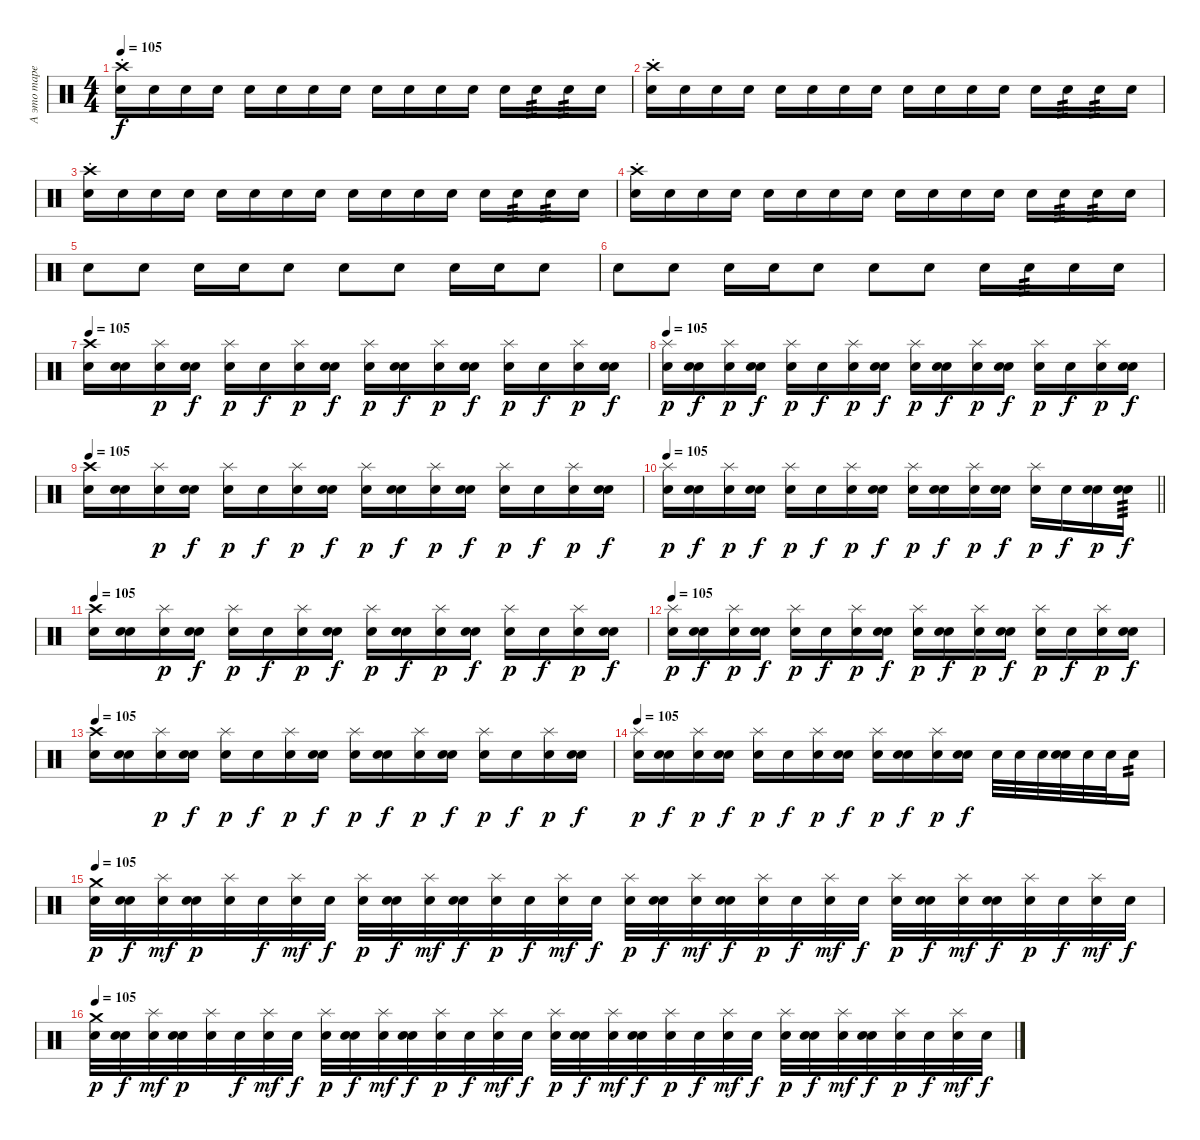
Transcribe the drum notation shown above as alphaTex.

\track ("А это тарелки уже" "А это таре") {instrument percussion}
\staff {score}
\articulation defaults
\ts (4 4)
\tempo 105
\clef neutral
\ks c
("Crash high (hit)"{st} "Snare (hit)").16{dy f} "Snare (hit)".16 "Snare (hit)".16 "Snare (hit)".16 "Snare (hit)".16 "Snare (hit)".16 "Snare (hit)".16 "Snare (hit)".16 "Snare (hit)".16 "Snare (hit)".16 "Snare (hit)".16 "Snare (hit)".16 "Snare (hit)".16 "Snare (hit)".16{tp 3} "Snare (hit)".16{tp 3} "Snare (hit)".16 |
("Crash high (hit)"{st} "Snare (hit)").16 "Snare (hit)".16 "Snare (hit)".16 "Snare (hit)".16 "Snare (hit)".16 "Snare (hit)".16 "Snare (hit)".16 "Snare (hit)".16 "Snare (hit)".16 "Snare (hit)".16 "Snare (hit)".16 "Snare (hit)".16 "Snare (hit)".16 "Snare (hit)".16{tp 3} "Snare (hit)".16{tp 3} "Snare (hit)".16 |
("Crash high (hit)"{st} "Snare (hit)").16 "Snare (hit)".16 "Snare (hit)".16 "Snare (hit)".16 "Snare (hit)".16 "Snare (hit)".16 "Snare (hit)".16 "Snare (hit)".16 "Snare (hit)".16 "Snare (hit)".16 "Snare (hit)".16 "Snare (hit)".16 "Snare (hit)".16 "Snare (hit)".16{tp 3} "Snare (hit)".16{tp 3} "Snare (hit)".16 |
("Crash high (hit)"{st} "Snare (hit)").16 "Snare (hit)".16 "Snare (hit)".16 "Snare (hit)".16 "Snare (hit)".16 "Snare (hit)".16 "Snare (hit)".16 "Snare (hit)".16 "Snare (hit)".16 "Snare (hit)".16 "Snare (hit)".16 "Snare (hit)".16 "Snare (hit)".16 "Snare (hit)".16{tp 3} "Snare (hit)".16{tp 3} "Snare (hit)".16 |
"Snare (hit)".8 "Snare (hit)".8 "Snare (hit)".16 "Snare (hit)".16 "Snare (hit)".8 "Snare (hit)".8 "Snare (hit)".8 "Snare (hit)".16 "Snare (hit)".16 "Snare (hit)".8 |
"Snare (hit)".8 "Snare (hit)".8 "Snare (hit)".16 "Snare (hit)".16 "Snare (hit)".8 "Snare (hit)".8 "Snare (hit)".8 "Snare (hit)".16 "Snare (hit)".16{tp 3} "Snare (hit)".16 "Snare (hit)".16 |
\tempo 105
("Crash high (hit)" "Snare (hit)").16 ("Snare (hit)" "Snare (hit)").16 ("Splash (hit)" "Snare (hit)").16{dy p} ("Snare (hit)" "Snare (hit)").16{dy f} ("Splash (hit)" "Snare (hit)").16{dy p} "Snare (hit)".16{dy f} ("Splash (hit)" "Snare (hit)").16{dy p} ("Snare (hit)" "Snare (hit)").16{dy f} ("Splash (hit)" "Snare (hit)").16{dy p} ("Snare (hit)" "Snare (hit)").16{dy f} ("Splash (hit)" "Snare (hit)").16{dy p} ("Snare (hit)" "Snare (hit)").16{dy f} ("Splash (hit)" "Snare (hit)").16{dy p} "Snare (hit)".16{dy f} ("Splash (hit)" "Snare (hit)").16{dy p} ("Snare (hit)" "Snare (hit)").16{dy f} |
\tempo 105
("Splash (hit)" "Snare (hit)").16{dy p} ("Snare (hit)" "Snare (hit)").16{dy f} ("Splash (hit)" "Snare (hit)").16{dy p} ("Snare (hit)" "Snare (hit)").16{dy f} ("Splash (hit)" "Snare (hit)").16{dy p} "Snare (hit)".16{dy f} ("Splash (hit)" "Snare (hit)").16{dy p} ("Snare (hit)" "Snare (hit)").16{dy f} ("Splash (hit)" "Snare (hit)").16{dy p} ("Snare (hit)" "Snare (hit)").16{dy f} ("Splash (hit)" "Snare (hit)").16{dy p} ("Snare (hit)" "Snare (hit)").16{dy f} ("Splash (hit)" "Snare (hit)").16{dy p} "Snare (hit)".16{dy f} ("Splash (hit)" "Snare (hit)").16{dy p} ("Snare (hit)" "Snare (hit)").16{dy f} |
\tempo 105
("Crash high (hit)" "Snare (hit)").16 ("Snare (hit)" "Snare (hit)").16 ("Splash (hit)" "Snare (hit)").16{dy p} ("Snare (hit)" "Snare (hit)").16{dy f} ("Splash (hit)" "Snare (hit)").16{dy p} "Snare (hit)".16{dy f} ("Splash (hit)" "Snare (hit)").16{dy p} ("Snare (hit)" "Snare (hit)").16{dy f} ("Splash (hit)" "Snare (hit)").16{dy p} ("Snare (hit)" "Snare (hit)").16{dy f} ("Splash (hit)" "Snare (hit)").16{dy p} ("Snare (hit)" "Snare (hit)").16{dy f} ("Splash (hit)" "Snare (hit)").16{dy p} "Snare (hit)".16{dy f} ("Splash (hit)" "Snare (hit)").16{dy p} ("Snare (hit)" "Snare (hit)").16{dy f} |
\tempo 105
\barLineRight lightlight
("Splash (hit)" "Snare (hit)").16{dy p} ("Snare (hit)" "Snare (hit)").16{dy f} ("Splash (hit)" "Snare (hit)").16{dy p} ("Snare (hit)" "Snare (hit)").16{dy f} ("Splash (hit)" "Snare (hit)").16{dy p} "Snare (hit)".16{dy f} ("Splash (hit)" "Snare (hit)").16{dy p} ("Snare (hit)" "Snare (hit)").16{dy f} ("Splash (hit)" "Snare (hit)").16{dy p} ("Snare (hit)" "Snare (hit)").16{dy f} ("Splash (hit)" "Snare (hit)").16{dy p} ("Snare (hit)" "Snare (hit)").16{dy f} ("Splash (hit)" "Snare (hit)").16{dy p} "Snare (hit)".16{dy f} ("Snare (hit)" "Snare (hit)").16{dy p} ("Snare (hit)" "Snare (hit)").16{tp 3 dy f} |
\tempo 105
("Crash high (hit)" "Snare (hit)").16 ("Snare (hit)" "Snare (hit)").16 ("Splash (hit)" "Snare (hit)").16{dy p} ("Snare (hit)" "Snare (hit)").16{dy f} ("Splash (hit)" "Snare (hit)").16{dy p} "Snare (hit)".16{dy f} ("Splash (hit)" "Snare (hit)").16{dy p} ("Snare (hit)" "Snare (hit)").16{dy f} ("Splash (hit)" "Snare (hit)").16{dy p} ("Snare (hit)" "Snare (hit)").16{dy f} ("Splash (hit)" "Snare (hit)").16{dy p} ("Snare (hit)" "Snare (hit)").16{dy f} ("Splash (hit)" "Snare (hit)").16{dy p} "Snare (hit)".16{dy f} ("Splash (hit)" "Snare (hit)").16{dy p} ("Snare (hit)" "Snare (hit)").16{dy f} |
\tempo 105
("Splash (hit)" "Snare (hit)").16{dy p} ("Snare (hit)" "Snare (hit)").16{dy f} ("Splash (hit)" "Snare (hit)").16{dy p} ("Snare (hit)" "Snare (hit)").16{dy f} ("Splash (hit)" "Snare (hit)").16{dy p} "Snare (hit)".16{dy f} ("Splash (hit)" "Snare (hit)").16{dy p} ("Snare (hit)" "Snare (hit)").16{dy f} ("Splash (hit)" "Snare (hit)").16{dy p} ("Snare (hit)" "Snare (hit)").16{dy f} ("Splash (hit)" "Snare (hit)").16{dy p} ("Snare (hit)" "Snare (hit)").16{dy f} ("Splash (hit)" "Snare (hit)").16{dy p} "Snare (hit)".16{dy f} ("Splash (hit)" "Snare (hit)").16{dy p} ("Snare (hit)" "Snare (hit)").16{dy f} |
\tempo 105
("Crash high (hit)" "Snare (hit)").16 ("Snare (hit)" "Snare (hit)").16 ("Splash (hit)" "Snare (hit)").16{dy p} ("Snare (hit)" "Snare (hit)").16{dy f} ("Splash (hit)" "Snare (hit)").16{dy p} "Snare (hit)".16{dy f} ("Splash (hit)" "Snare (hit)").16{dy p} ("Snare (hit)" "Snare (hit)").16{dy f} ("Splash (hit)" "Snare (hit)").16{dy p} ("Snare (hit)" "Snare (hit)").16{dy f} ("Splash (hit)" "Snare (hit)").16{dy p} ("Snare (hit)" "Snare (hit)").16{dy f} ("Splash (hit)" "Snare (hit)").16{dy p} "Snare (hit)".16{dy f} ("Splash (hit)" "Snare (hit)").16{dy p} ("Snare (hit)" "Snare (hit)").16{dy f} |
\tempo 105
("Splash (hit)" "Snare (hit)").16{dy p} ("Snare (hit)" "Snare (hit)").16{dy f} ("Splash (hit)" "Snare (hit)").16{dy p} ("Snare (hit)" "Snare (hit)").16{dy f} ("Splash (hit)" "Snare (hit)").16{dy p} "Snare (hit)".16{dy f} ("Splash (hit)" "Snare (hit)").16{dy p} ("Snare (hit)" "Snare (hit)").16{dy f} ("Splash (hit)" "Snare (hit)").16{dy p} ("Snare (hit)" "Snare (hit)").16{dy f} ("Splash (hit)" "Snare (hit)").16{dy p} ("Snare (hit)" "Snare (hit)").16{dy f} "Snare (hit)".32 "Snare (hit)".32 "Snare (hit)".32 ("Snare (hit)" "Snare (hit)").32 "Snare (hit)".32 "Snare (hit)".32 "Snare (hit)".16{tp 2} |
\tempo 105
("Crash medium (hit)" "Snare (hit)").32{dy p} ("Snare (hit)" "Snare (hit)").32{dy f} ("Splash (hit)" "Snare (hit)").32{dy mf} ("Snare (hit)" "Snare (hit)").32{dy p} ("Splash (hit)" "Snare (hit)").32 "Snare (hit)".32{dy f} ("Splash (hit)" "Snare (hit)").32{dy mf} "Snare (hit)".32{dy f} ("Splash (hit)" "Snare (hit)").32{dy p} ("Snare (hit)" "Snare (hit)").32{dy f} ("Splash (hit)" "Snare (hit)").32{dy mf} ("Snare (hit)" "Snare (hit)").32{dy f} ("Splash (hit)" "Snare (hit)").32{dy p} "Snare (hit)".32{dy f} ("Splash (hit)" "Snare (hit)").32{dy mf} "Snare (hit)".32{dy f} ("Splash (hit)" "Snare (hit)").32{dy p} ("Snare (hit)" "Snare (hit)").32{dy f} ("Splash (hit)" "Snare (hit)").32{dy mf} ("Snare (hit)" "Snare (hit)").32{dy f} ("Splash (hit)" "Snare (hit)").32{dy p} "Snare (hit)".32{dy f} ("Splash (hit)" "Snare (hit)").32{dy mf} "Snare (hit)".32{dy f} ("Splash (hit)" "Snare (hit)").32{dy p} ("Snare (hit)" "Snare (hit)").32{dy f} ("Splash (hit)" "Snare (hit)").32{dy mf} ("Snare (hit)" "Snare (hit)").32{dy f} ("Splash (hit)" "Snare (hit)").32{dy p} "Snare (hit)".32{dy f} ("Splash (hit)" "Snare (hit)").32{dy mf} "Snare (hit)".32{dy f} |
\tempo 105
("Crash medium (hit)" "Snare (hit)").32{dy p} ("Snare (hit)" "Snare (hit)").32{dy f} ("Splash (hit)" "Snare (hit)").32{dy mf} ("Snare (hit)" "Snare (hit)").32{dy p} ("Splash (hit)" "Snare (hit)").32 "Snare (hit)".32{dy f} ("Splash (hit)" "Snare (hit)").32{dy mf} "Snare (hit)".32{dy f} ("Splash (hit)" "Snare (hit)").32{dy p} ("Snare (hit)" "Snare (hit)").32{dy f} ("Splash (hit)" "Snare (hit)").32{dy mf} ("Snare (hit)" "Snare (hit)").32{dy f} ("Splash (hit)" "Snare (hit)").32{dy p} "Snare (hit)".32{dy f} ("Splash (hit)" "Snare (hit)").32{dy mf} "Snare (hit)".32{dy f} ("Splash (hit)" "Snare (hit)").32{dy p} ("Snare (hit)" "Snare (hit)").32{dy f} ("Splash (hit)" "Snare (hit)").32{dy mf} ("Snare (hit)" "Snare (hit)").32{dy f} ("Splash (hit)" "Snare (hit)").32{dy p} "Snare (hit)".32{dy f} ("Splash (hit)" "Snare (hit)").32{dy mf} "Snare (hit)".32{dy f} ("Splash (hit)" "Snare (hit)").32{dy p} ("Snare (hit)" "Snare (hit)").32{dy f} ("Splash (hit)" "Snare (hit)").32{dy mf} ("Snare (hit)" "Snare (hit)").32{dy f} ("Splash (hit)" "Snare (hit)").32{dy p} "Snare (hit)".32{dy f} ("Splash (hit)" "Snare (hit)").32{dy mf} "Snare (hit)".32{dy f}
